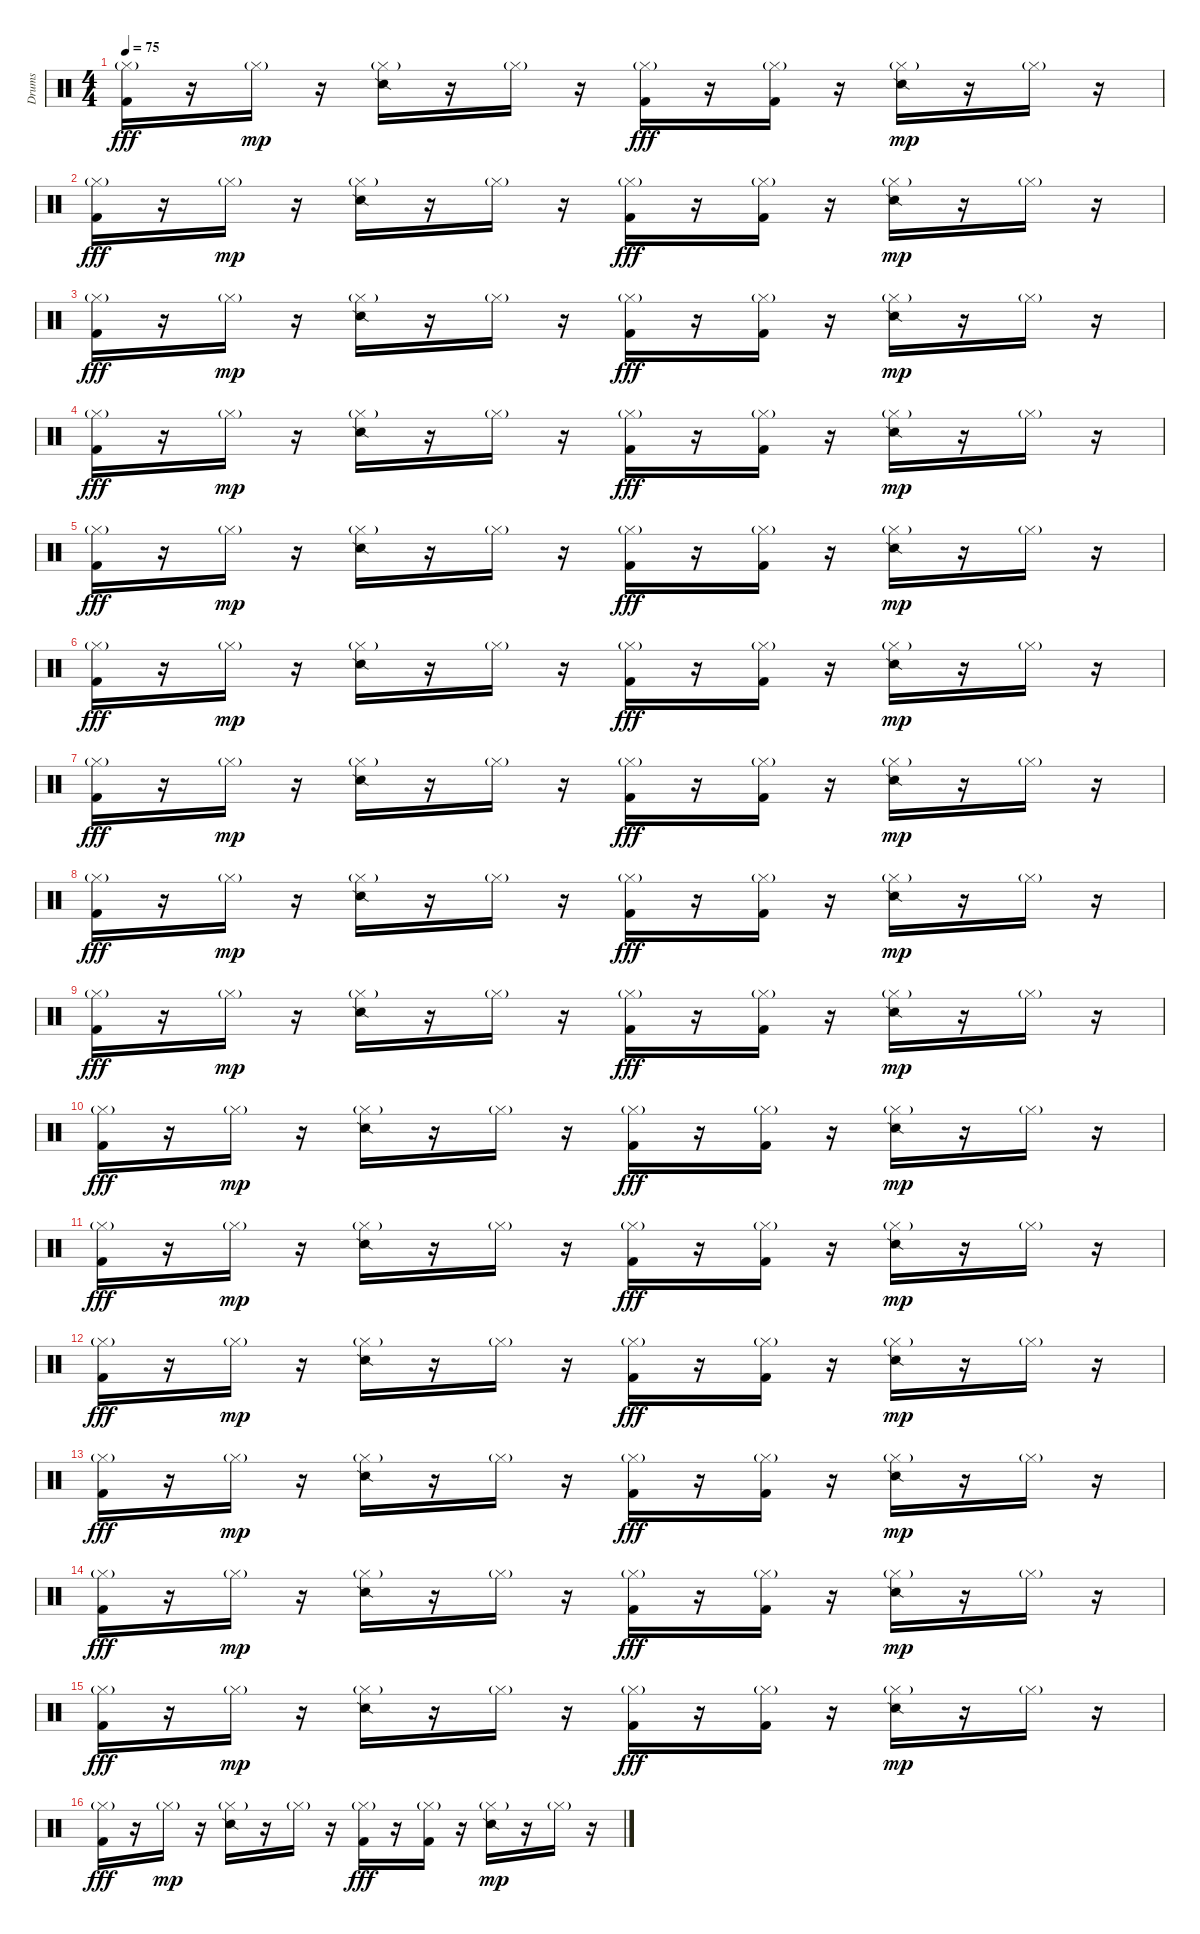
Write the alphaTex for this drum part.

\track ("Drums" "Drums") {instrument percussion}
\staff {score}
\articulation defaults
\ts (4 4)
\tempo 75
\clef neutral
\ks c
("Hi-Hat (closed)"{g} "Kick (hit) 2").16{dy fff} r.16 "Hi-Hat (closed)"{g}.16{dy mp} r.16 ("Hi-Hat (closed)"{g} "Snare (side stick) 2").16 r.16 "Hi-Hat (closed)"{g}.16 r.16 ("Hi-Hat (closed)"{g} "Kick (hit) 2").16{dy fff} r.16 ("Hi-Hat (closed)"{g} "Kick (hit) 2").16 r.16 ("Hi-Hat (closed)"{g} "Snare (side stick) 2").16{dy mp} r.16 "Hi-Hat (closed)"{g}.16 r.16 |
("Hi-Hat (closed)"{g} "Kick (hit) 2").16{dy fff} r.16 "Hi-Hat (closed)"{g}.16{dy mp} r.16 ("Hi-Hat (closed)"{g} "Snare (side stick) 2").16 r.16 "Hi-Hat (closed)"{g}.16 r.16 ("Hi-Hat (closed)"{g} "Kick (hit) 2").16{dy fff} r.16 ("Hi-Hat (closed)"{g} "Kick (hit) 2").16 r.16 ("Hi-Hat (closed)"{g} "Snare (side stick) 2").16{dy mp} r.16 "Hi-Hat (closed)"{g}.16 r.16 |
("Hi-Hat (closed)"{g} "Kick (hit) 2").16{dy fff} r.16 "Hi-Hat (closed)"{g}.16{dy mp} r.16 ("Hi-Hat (closed)"{g} "Snare (side stick) 2").16 r.16 "Hi-Hat (closed)"{g}.16 r.16 ("Hi-Hat (closed)"{g} "Kick (hit) 2").16{dy fff} r.16 ("Hi-Hat (closed)"{g} "Kick (hit) 2").16 r.16 ("Hi-Hat (closed)"{g} "Snare (side stick) 2").16{dy mp} r.16 "Hi-Hat (closed)"{g}.16 r.16 |
("Hi-Hat (closed)"{g} "Kick (hit) 2").16{dy fff} r.16 "Hi-Hat (closed)"{g}.16{dy mp} r.16 ("Hi-Hat (closed)"{g} "Snare (side stick) 2").16 r.16 "Hi-Hat (closed)"{g}.16 r.16 ("Hi-Hat (closed)"{g} "Kick (hit) 2").16{dy fff} r.16 ("Hi-Hat (closed)"{g} "Kick (hit) 2").16 r.16 ("Hi-Hat (closed)"{g} "Snare (side stick) 2").16{dy mp} r.16 "Hi-Hat (closed)"{g}.16 r.16 |
("Hi-Hat (closed)"{g} "Kick (hit) 2").16{dy fff} r.16 "Hi-Hat (closed)"{g}.16{dy mp} r.16 ("Hi-Hat (closed)"{g} "Snare (side stick) 2").16 r.16 "Hi-Hat (closed)"{g}.16 r.16 ("Hi-Hat (closed)"{g} "Kick (hit) 2").16{dy fff} r.16 ("Hi-Hat (closed)"{g} "Kick (hit) 2").16 r.16 ("Hi-Hat (closed)"{g} "Snare (side stick) 2").16{dy mp} r.16 "Hi-Hat (closed)"{g}.16 r.16 |
("Hi-Hat (closed)"{g} "Kick (hit) 2").16{dy fff} r.16 "Hi-Hat (closed)"{g}.16{dy mp} r.16 ("Hi-Hat (closed)"{g} "Snare (side stick) 2").16 r.16 "Hi-Hat (closed)"{g}.16 r.16 ("Hi-Hat (closed)"{g} "Kick (hit) 2").16{dy fff} r.16 ("Hi-Hat (closed)"{g} "Kick (hit) 2").16 r.16 ("Hi-Hat (closed)"{g} "Snare (side stick) 2").16{dy mp} r.16 "Hi-Hat (closed)"{g}.16 r.16 |
("Hi-Hat (closed)"{g} "Kick (hit) 2").16{dy fff} r.16 "Hi-Hat (closed)"{g}.16{dy mp} r.16 ("Hi-Hat (closed)"{g} "Snare (side stick) 2").16 r.16 "Hi-Hat (closed)"{g}.16 r.16 ("Hi-Hat (closed)"{g} "Kick (hit) 2").16{dy fff} r.16 ("Hi-Hat (closed)"{g} "Kick (hit) 2").16 r.16 ("Hi-Hat (closed)"{g} "Snare (side stick) 2").16{dy mp} r.16 "Hi-Hat (closed)"{g}.16 r.16 |
("Hi-Hat (closed)"{g} "Kick (hit) 2").16{dy fff} r.16 "Hi-Hat (closed)"{g}.16{dy mp} r.16 ("Hi-Hat (closed)"{g} "Snare (side stick) 2").16 r.16 "Hi-Hat (closed)"{g}.16 r.16 ("Hi-Hat (closed)"{g} "Kick (hit) 2").16{dy fff} r.16 ("Hi-Hat (closed)"{g} "Kick (hit) 2").16 r.16 ("Hi-Hat (closed)"{g} "Snare (side stick) 2").16{dy mp} r.16 "Hi-Hat (closed)"{g}.16 r.16 |
("Hi-Hat (closed)"{g} "Kick (hit) 2").16{dy fff} r.16 "Hi-Hat (closed)"{g}.16{dy mp} r.16 ("Hi-Hat (closed)"{g} "Snare (side stick) 2").16 r.16 "Hi-Hat (closed)"{g}.16 r.16 ("Hi-Hat (closed)"{g} "Kick (hit) 2").16{dy fff} r.16 ("Hi-Hat (closed)"{g} "Kick (hit) 2").16 r.16 ("Hi-Hat (closed)"{g} "Snare (side stick) 2").16{dy mp} r.16 "Hi-Hat (closed)"{g}.16 r.16 |
("Hi-Hat (closed)"{g} "Kick (hit) 2").16{dy fff} r.16 "Hi-Hat (closed)"{g}.16{dy mp} r.16 ("Hi-Hat (closed)"{g} "Snare (side stick) 2").16 r.16 "Hi-Hat (closed)"{g}.16 r.16 ("Hi-Hat (closed)"{g} "Kick (hit) 2").16{dy fff} r.16 ("Hi-Hat (closed)"{g} "Kick (hit) 2").16 r.16 ("Hi-Hat (closed)"{g} "Snare (side stick) 2").16{dy mp} r.16 "Hi-Hat (closed)"{g}.16 r.16 |
("Hi-Hat (closed)"{g} "Kick (hit) 2").16{dy fff} r.16 "Hi-Hat (closed)"{g}.16{dy mp} r.16 ("Hi-Hat (closed)"{g} "Snare (side stick) 2").16 r.16 "Hi-Hat (closed)"{g}.16 r.16 ("Hi-Hat (closed)"{g} "Kick (hit) 2").16{dy fff} r.16 ("Hi-Hat (closed)"{g} "Kick (hit) 2").16 r.16 ("Hi-Hat (closed)"{g} "Snare (side stick) 2").16{dy mp} r.16 "Hi-Hat (closed)"{g}.16 r.16 |
("Hi-Hat (closed)"{g} "Kick (hit) 2").16{dy fff} r.16 "Hi-Hat (closed)"{g}.16{dy mp} r.16 ("Hi-Hat (closed)"{g} "Snare (side stick) 2").16 r.16 "Hi-Hat (closed)"{g}.16 r.16 ("Hi-Hat (closed)"{g} "Kick (hit) 2").16{dy fff} r.16 ("Hi-Hat (closed)"{g} "Kick (hit) 2").16 r.16 ("Hi-Hat (closed)"{g} "Snare (side stick) 2").16{dy mp} r.16 "Hi-Hat (closed)"{g}.16 r.16 |
("Hi-Hat (closed)"{g} "Kick (hit) 2").16{dy fff} r.16 "Hi-Hat (closed)"{g}.16{dy mp} r.16 ("Hi-Hat (closed)"{g} "Snare (side stick) 2").16 r.16 "Hi-Hat (closed)"{g}.16 r.16 ("Hi-Hat (closed)"{g} "Kick (hit) 2").16{dy fff} r.16 ("Hi-Hat (closed)"{g} "Kick (hit) 2").16 r.16 ("Hi-Hat (closed)"{g} "Snare (side stick) 2").16{dy mp} r.16 "Hi-Hat (closed)"{g}.16 r.16 |
("Hi-Hat (closed)"{g} "Kick (hit) 2").16{dy fff} r.16 "Hi-Hat (closed)"{g}.16{dy mp} r.16 ("Hi-Hat (closed)"{g} "Snare (side stick) 2").16 r.16 "Hi-Hat (closed)"{g}.16 r.16 ("Hi-Hat (closed)"{g} "Kick (hit) 2").16{dy fff} r.16 ("Hi-Hat (closed)"{g} "Kick (hit) 2").16 r.16 ("Hi-Hat (closed)"{g} "Snare (side stick) 2").16{dy mp} r.16 "Hi-Hat (closed)"{g}.16 r.16 |
("Hi-Hat (closed)"{g} "Kick (hit) 2").16{dy fff} r.16 "Hi-Hat (closed)"{g}.16{dy mp} r.16 ("Hi-Hat (closed)"{g} "Snare (side stick) 2").16 r.16 "Hi-Hat (closed)"{g}.16 r.16 ("Hi-Hat (closed)"{g} "Kick (hit) 2").16{dy fff} r.16 ("Hi-Hat (closed)"{g} "Kick (hit) 2").16 r.16 ("Hi-Hat (closed)"{g} "Snare (side stick) 2").16{dy mp} r.16 "Hi-Hat (closed)"{g}.16 r.16 |
("Hi-Hat (closed)"{g} "Kick (hit) 2").16{dy fff} r.16 "Hi-Hat (closed)"{g}.16{dy mp} r.16 ("Hi-Hat (closed)"{g} "Snare (side stick) 2").16 r.16 "Hi-Hat (closed)"{g}.16 r.16 ("Hi-Hat (closed)"{g} "Kick (hit) 2").16{dy fff} r.16 ("Hi-Hat (closed)"{g} "Kick (hit) 2").16 r.16 ("Hi-Hat (closed)"{g} "Snare (side stick) 2").16{dy mp} r.16 "Hi-Hat (closed)"{g}.16 r.16
